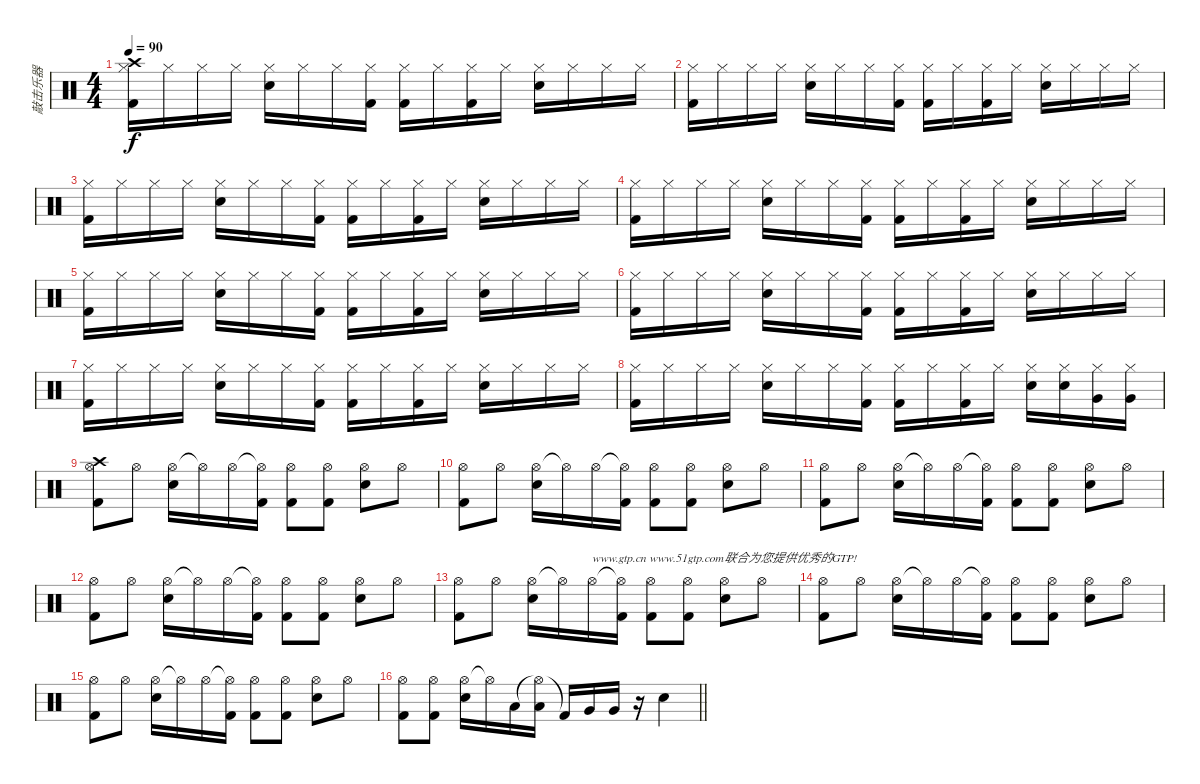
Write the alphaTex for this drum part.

\track ("敲击乐器" "敲击乐器") {instrument percussion}
\staff {score}
\articulation defaults
\ts (4 4)
\tempo 90
\clef neutral
\ks c
("Hi-Hat (closed)" "Kick (hit) 2" "Crash high (hit)").16{dy f} "Hi-Hat (closed)".16 "Hi-Hat (closed)".16 "Hi-Hat (closed)".16 ("Hi-Hat (closed)" "Electric Snare (hit)").16 "Hi-Hat (closed)".16 "Hi-Hat (closed)".16 ("Hi-Hat (closed)" "Kick (hit) 2").16 ("Hi-Hat (closed)" "Kick (hit) 2").16 "Hi-Hat (closed)".16 ("Hi-Hat (closed)" "Kick (hit) 2").16 "Hi-Hat (closed)".16 ("Hi-Hat (closed)" "Electric Snare (hit)").16 "Hi-Hat (closed)".16 "Hi-Hat (closed)".16 "Hi-Hat (closed)".16 |
("Hi-Hat (closed)" "Kick (hit) 2").16 "Hi-Hat (closed)".16 "Hi-Hat (closed)".16 "Hi-Hat (closed)".16 ("Hi-Hat (closed)" "Electric Snare (hit)").16 "Hi-Hat (closed)".16 "Hi-Hat (closed)".16 ("Hi-Hat (closed)" "Kick (hit) 2").16 ("Hi-Hat (closed)" "Kick (hit) 2").16 "Hi-Hat (closed)".16 ("Hi-Hat (closed)" "Kick (hit) 2").16 "Hi-Hat (closed)".16 ("Hi-Hat (closed)" "Electric Snare (hit)").16 "Hi-Hat (closed)".16 "Hi-Hat (closed)".16 "Hi-Hat (closed)".16 |
("Hi-Hat (closed)" "Kick (hit) 2").16 "Hi-Hat (closed)".16 "Hi-Hat (closed)".16 "Hi-Hat (closed)".16 ("Hi-Hat (closed)" "Electric Snare (hit)").16 "Hi-Hat (closed)".16 "Hi-Hat (closed)".16 ("Hi-Hat (closed)" "Kick (hit) 2").16 ("Hi-Hat (closed)" "Kick (hit) 2").16 "Hi-Hat (closed)".16 ("Hi-Hat (closed)" "Kick (hit) 2").16 "Hi-Hat (closed)".16 ("Hi-Hat (closed)" "Electric Snare (hit)").16 "Hi-Hat (closed)".16 "Hi-Hat (closed)".16 "Hi-Hat (closed)".16 |
("Hi-Hat (closed)" "Kick (hit) 2").16 "Hi-Hat (closed)".16 "Hi-Hat (closed)".16 "Hi-Hat (closed)".16 ("Hi-Hat (closed)" "Electric Snare (hit)").16 "Hi-Hat (closed)".16 "Hi-Hat (closed)".16 ("Hi-Hat (closed)" "Kick (hit) 2").16 ("Hi-Hat (closed)" "Kick (hit) 2").16 "Hi-Hat (closed)".16 ("Hi-Hat (closed)" "Kick (hit) 2").16 "Hi-Hat (closed)".16 ("Hi-Hat (closed)" "Electric Snare (hit)").16 "Hi-Hat (closed)".16 "Hi-Hat (closed)".16 "Hi-Hat (closed)".16 |
("Hi-Hat (closed)" "Kick (hit) 2").16 "Hi-Hat (closed)".16 "Hi-Hat (closed)".16 "Hi-Hat (closed)".16 ("Hi-Hat (closed)" "Electric Snare (hit)").16 "Hi-Hat (closed)".16 "Hi-Hat (closed)".16 ("Hi-Hat (closed)" "Kick (hit) 2").16 ("Hi-Hat (closed)" "Kick (hit) 2").16 "Hi-Hat (closed)".16 ("Hi-Hat (closed)" "Kick (hit) 2").16 "Hi-Hat (closed)".16 ("Hi-Hat (closed)" "Electric Snare (hit)").16 "Hi-Hat (closed)".16 "Hi-Hat (closed)".16 "Hi-Hat (closed)".16 |
("Hi-Hat (closed)" "Kick (hit) 2").16 "Hi-Hat (closed)".16 "Hi-Hat (closed)".16 "Hi-Hat (closed)".16 ("Hi-Hat (closed)" "Electric Snare (hit)").16 "Hi-Hat (closed)".16 "Hi-Hat (closed)".16 ("Hi-Hat (closed)" "Kick (hit) 2").16 ("Hi-Hat (closed)" "Kick (hit) 2").16 "Hi-Hat (closed)".16 ("Hi-Hat (closed)" "Kick (hit) 2").16 "Hi-Hat (closed)".16 ("Hi-Hat (closed)" "Electric Snare (hit)").16 "Hi-Hat (closed)".16 "Hi-Hat (closed)".16 "Hi-Hat (closed)".16 |
("Hi-Hat (closed)" "Kick (hit) 2").16 "Hi-Hat (closed)".16 "Hi-Hat (closed)".16 "Hi-Hat (closed)".16 ("Hi-Hat (closed)" "Electric Snare (hit)").16 "Hi-Hat (closed)".16 "Hi-Hat (closed)".16 ("Hi-Hat (closed)" "Kick (hit) 2").16 ("Hi-Hat (closed)" "Kick (hit) 2").16 "Hi-Hat (closed)".16 ("Hi-Hat (closed)" "Kick (hit) 2").16 "Hi-Hat (closed)".16 ("Hi-Hat (closed)" "Electric Snare (hit)").16 "Hi-Hat (closed)".16 "Hi-Hat (closed)".16 "Hi-Hat (closed)".16 |
("Hi-Hat (closed)" "Kick (hit) 2").16 "Hi-Hat (closed)".16 "Hi-Hat (closed)".16 "Hi-Hat (closed)".16 ("Hi-Hat (closed)" "Electric Snare (hit)").16 "Hi-Hat (closed)".16 "Hi-Hat (closed)".16 ("Hi-Hat (closed)" "Kick (hit) 2").16 ("Hi-Hat (closed)" "Kick (hit) 2").16 "Hi-Hat (closed)".16 ("Hi-Hat (closed)" "Kick (hit) 2").16 "Hi-Hat (closed)".16 ("Hi-Hat (closed)" "Electric Snare (hit)").16 ("Hi-Hat (closed)" "Electric Snare (hit)").16 ("Hi-Hat (closed)" "Very Low Tom (hit)").16 ("Hi-Hat (closed)" "Very Low Tom (hit)").16 |
("Hi-Hat (open)" "Kick (hit) 2" "Crash high (hit)").8 "Hi-Hat (open)".8 ("Hi-Hat (open)" "Electric Snare (hit)").16 "Hi-Hat (open)"{t}.16 "Hi-Hat (open)".16 ("Hi-Hat (open)"{t} "Kick (hit) 2").16 ("Hi-Hat (open)" "Kick (hit) 2").8 ("Hi-Hat (open)" "Kick (hit) 2").8 ("Hi-Hat (open)" "Electric Snare (hit)").8 "Hi-Hat (open)".8 |
("Hi-Hat (open)" "Kick (hit) 2").8 "Hi-Hat (open)".8 ("Hi-Hat (open)" "Electric Snare (hit)").16 "Hi-Hat (open)"{t}.16 "Hi-Hat (open)".16 ("Hi-Hat (open)"{t} "Kick (hit) 2").16 ("Hi-Hat (open)" "Kick (hit) 2").8 ("Hi-Hat (open)" "Kick (hit) 2").8 ("Hi-Hat (open)" "Electric Snare (hit)").8 "Hi-Hat (open)".8 |
("Hi-Hat (open)" "Kick (hit) 2").8 "Hi-Hat (open)".8 ("Hi-Hat (open)" "Electric Snare (hit)").16 "Hi-Hat (open)"{t}.16 "Hi-Hat (open)".16 ("Hi-Hat (open)"{t} "Kick (hit) 2").16 ("Hi-Hat (open)" "Kick (hit) 2").8 ("Hi-Hat (open)" "Kick (hit) 2").8 ("Hi-Hat (open)" "Electric Snare (hit)").8 "Hi-Hat (open)".8 |
("Hi-Hat (open)" "Kick (hit) 2").8 "Hi-Hat (open)".8 ("Hi-Hat (open)" "Electric Snare (hit)").16 "Hi-Hat (open)"{t}.16 "Hi-Hat (open)".16 ("Hi-Hat (open)"{t} "Kick (hit) 2").16 ("Hi-Hat (open)" "Kick (hit) 2").8 ("Hi-Hat (open)" "Kick (hit) 2").8 ("Hi-Hat (open)" "Electric Snare (hit)").8 "Hi-Hat (open)".8 |
("Hi-Hat (open)" "Kick (hit) 2").8 "Hi-Hat (open)".8 ("Hi-Hat (open)" "Electric Snare (hit)").16 "Hi-Hat (open)"{t}.16 "Hi-Hat (open)".16{txt "www.gtp.cn www.51gtp.com联合为您提供优秀的GTP!"} ("Hi-Hat (open)"{t} "Kick (hit) 2").16 ("Hi-Hat (open)" "Kick (hit) 2").8 ("Hi-Hat (open)" "Kick (hit) 2").8 ("Hi-Hat (open)" "Electric Snare (hit)").8 "Hi-Hat (open)".8 |
("Hi-Hat (open)" "Kick (hit) 2").8 "Hi-Hat (open)".8 ("Hi-Hat (open)" "Electric Snare (hit)").16 "Hi-Hat (open)"{t}.16 "Hi-Hat (open)".16 ("Hi-Hat (open)"{t} "Kick (hit) 2").16 ("Hi-Hat (open)" "Kick (hit) 2").8 ("Hi-Hat (open)" "Kick (hit) 2").8 ("Hi-Hat (open)" "Electric Snare (hit)").8 "Hi-Hat (open)".8 |
("Hi-Hat (open)" "Kick (hit) 2").8 "Hi-Hat (open)".8 ("Hi-Hat (open)" "Electric Snare (hit)").16 "Hi-Hat (open)"{t}.16 "Hi-Hat (open)".16 ("Hi-Hat (open)"{t} "Kick (hit) 2").16 ("Hi-Hat (open)" "Kick (hit) 2").8 ("Hi-Hat (open)" "Kick (hit) 2").8 ("Hi-Hat (open)" "Electric Snare (hit)").8 "Hi-Hat (open)".8 |
\barLineRight lightlight
("Hi-Hat (open)" "Kick (hit) 2").8 ("Hi-Hat (open)" "Kick (hit) 2").8 ("Hi-Hat (open)" "Electric Snare (hit)").16 "Hi-Hat (open)"{t}.16 "Low Tom (hit)".16 ("Hi-Hat (open)"{t} "Low Tom (hit)").16 "Kick (hit) 2"{t}.16 "Very Low Tom (hit)".16 "Very Low Tom (hit)".16 r.16 "Electric Snare (hit)".4
